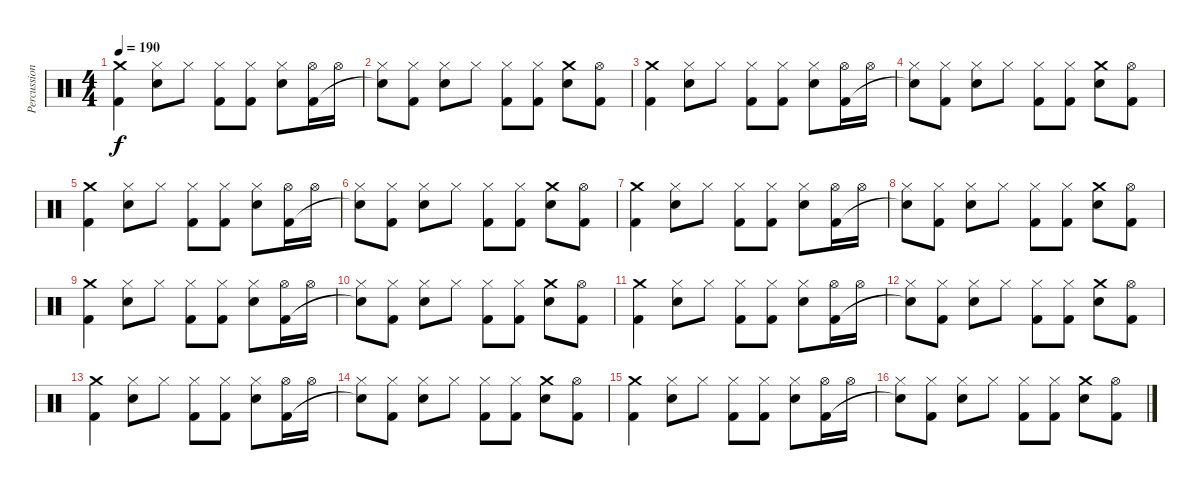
\track ("Percussion" "Percussion") {instrument percussion}
\staff {score}
\articulation defaults
\ts (4 4)
\tempo 190
\clef neutral
\ks c
("Crash medium (hit)" "Kick (hit) 2").4{dy f} ("Hi-Hat (closed)" "Snare (hit) 2").8 "Hi-Hat (closed)".8 ("Hi-Hat (closed)" "Kick (hit) 2").8 ("Hi-Hat (closed)" "Kick (hit) 2").8 ("Hi-Hat (closed)" "Snare (hit) 2").8 ("Hi-Hat (open)" "Kick (hit) 2").16 "Hi-Hat (open)".16 |
("Hi-Hat (closed)" "Snare (hit)"{t}).8 ("Hi-Hat (closed)" "Kick (hit) 2").8 ("Hi-Hat (closed)" "Snare (hit) 2").8 "Hi-Hat (closed)".8 ("Hi-Hat (closed)" "Kick (hit) 2").8 ("Hi-Hat (closed)" "Kick (hit) 2").8 ("Crash medium (hit)" "Snare (hit) 2").8 ("Hi-Hat (open)" "Kick (hit) 2").8 |
("Crash medium (hit)" "Kick (hit) 2").4 ("Hi-Hat (closed)" "Snare (hit) 2").8 "Hi-Hat (closed)".8 ("Hi-Hat (closed)" "Kick (hit) 2").8 ("Hi-Hat (closed)" "Kick (hit) 2").8 ("Hi-Hat (closed)" "Snare (hit) 2").8 ("Hi-Hat (open)" "Kick (hit) 2").16 "Hi-Hat (open)".16 |
("Hi-Hat (closed)" "Snare (hit)"{t}).8 ("Hi-Hat (closed)" "Kick (hit) 2").8 ("Hi-Hat (closed)" "Snare (hit) 2").8 "Hi-Hat (closed)".8 ("Hi-Hat (closed)" "Kick (hit) 2").8 ("Hi-Hat (closed)" "Kick (hit) 2").8 ("Crash medium (hit)" "Snare (hit) 2").8 ("Hi-Hat (open)" "Kick (hit) 2").8 |
("Crash medium (hit)" "Kick (hit) 2").4 ("Hi-Hat (closed)" "Snare (hit) 2").8 "Hi-Hat (closed)".8 ("Hi-Hat (closed)" "Kick (hit) 2").8 ("Hi-Hat (closed)" "Kick (hit) 2").8 ("Hi-Hat (closed)" "Snare (hit) 2").8 ("Hi-Hat (open)" "Kick (hit) 2").16 "Hi-Hat (open)".16 |
("Hi-Hat (closed)" "Snare (hit)"{t}).8 ("Hi-Hat (closed)" "Kick (hit) 2").8 ("Hi-Hat (closed)" "Snare (hit) 2").8 "Hi-Hat (closed)".8 ("Hi-Hat (closed)" "Kick (hit) 2").8 ("Hi-Hat (closed)" "Kick (hit) 2").8 ("Crash medium (hit)" "Snare (hit) 2").8 ("Hi-Hat (open)" "Kick (hit) 2").8 |
("Crash medium (hit)" "Kick (hit) 2").4 ("Hi-Hat (closed)" "Snare (hit) 2").8 "Hi-Hat (closed)".8 ("Hi-Hat (closed)" "Kick (hit) 2").8 ("Hi-Hat (closed)" "Kick (hit) 2").8 ("Hi-Hat (closed)" "Snare (hit) 2").8 ("Hi-Hat (open)" "Kick (hit) 2").16 "Hi-Hat (open)".16 |
("Hi-Hat (closed)" "Snare (hit)"{t}).8 ("Hi-Hat (closed)" "Kick (hit) 2").8 ("Hi-Hat (closed)" "Snare (hit) 2").8 "Hi-Hat (closed)".8 ("Hi-Hat (closed)" "Kick (hit) 2").8 ("Hi-Hat (closed)" "Kick (hit) 2").8 ("Crash medium (hit)" "Snare (hit) 2").8 ("Hi-Hat (open)" "Kick (hit) 2").8 |
("Crash medium (hit)" "Kick (hit) 2").4 ("Hi-Hat (closed)" "Snare (hit) 2").8 "Hi-Hat (closed)".8 ("Hi-Hat (closed)" "Kick (hit) 2").8 ("Hi-Hat (closed)" "Kick (hit) 2").8 ("Hi-Hat (closed)" "Snare (hit) 2").8 ("Hi-Hat (open)" "Kick (hit) 2").16 "Hi-Hat (open)".16 |
("Hi-Hat (closed)" "Snare (hit)"{t}).8 ("Hi-Hat (closed)" "Kick (hit) 2").8 ("Hi-Hat (closed)" "Snare (hit) 2").8 "Hi-Hat (closed)".8 ("Hi-Hat (closed)" "Kick (hit) 2").8 ("Hi-Hat (closed)" "Kick (hit) 2").8 ("Crash medium (hit)" "Snare (hit) 2").8 ("Hi-Hat (open)" "Kick (hit) 2").8 |
("Crash medium (hit)" "Kick (hit) 2").4 ("Hi-Hat (closed)" "Snare (hit) 2").8 "Hi-Hat (closed)".8 ("Hi-Hat (closed)" "Kick (hit) 2").8 ("Hi-Hat (closed)" "Kick (hit) 2").8 ("Hi-Hat (closed)" "Snare (hit) 2").8 ("Hi-Hat (open)" "Kick (hit) 2").16 "Hi-Hat (open)".16 |
("Hi-Hat (closed)" "Snare (hit)"{t}).8 ("Hi-Hat (closed)" "Kick (hit) 2").8 ("Hi-Hat (closed)" "Snare (hit) 2").8 "Hi-Hat (closed)".8 ("Hi-Hat (closed)" "Kick (hit) 2").8 ("Hi-Hat (closed)" "Kick (hit) 2").8 ("Crash medium (hit)" "Snare (hit) 2").8 ("Hi-Hat (open)" "Kick (hit) 2").8 |
("Crash medium (hit)" "Kick (hit) 2").4 ("Hi-Hat (closed)" "Snare (hit) 2").8 "Hi-Hat (closed)".8 ("Hi-Hat (closed)" "Kick (hit) 2").8 ("Hi-Hat (closed)" "Kick (hit) 2").8 ("Hi-Hat (closed)" "Snare (hit) 2").8 ("Hi-Hat (open)" "Kick (hit) 2").16 "Hi-Hat (open)".16 |
("Hi-Hat (closed)" "Snare (hit)"{t}).8 ("Hi-Hat (closed)" "Kick (hit) 2").8 ("Hi-Hat (closed)" "Snare (hit) 2").8 "Hi-Hat (closed)".8 ("Hi-Hat (closed)" "Kick (hit) 2").8 ("Hi-Hat (closed)" "Kick (hit) 2").8 ("Crash medium (hit)" "Snare (hit) 2").8 ("Hi-Hat (open)" "Kick (hit) 2").8 |
("Crash medium (hit)" "Kick (hit) 2").4 ("Hi-Hat (closed)" "Snare (hit) 2").8 "Hi-Hat (closed)".8 ("Hi-Hat (closed)" "Kick (hit) 2").8 ("Hi-Hat (closed)" "Kick (hit) 2").8 ("Hi-Hat (closed)" "Snare (hit) 2").8 ("Hi-Hat (open)" "Kick (hit) 2").16 "Hi-Hat (open)".16 |
("Hi-Hat (closed)" "Snare (hit)"{t}).8 ("Hi-Hat (closed)" "Kick (hit) 2").8 ("Hi-Hat (closed)" "Snare (hit) 2").8 "Hi-Hat (closed)".8 ("Hi-Hat (closed)" "Kick (hit) 2").8 ("Hi-Hat (closed)" "Kick (hit) 2").8 ("Crash medium (hit)" "Snare (hit) 2").8 ("Hi-Hat (open)" "Kick (hit) 2").8
